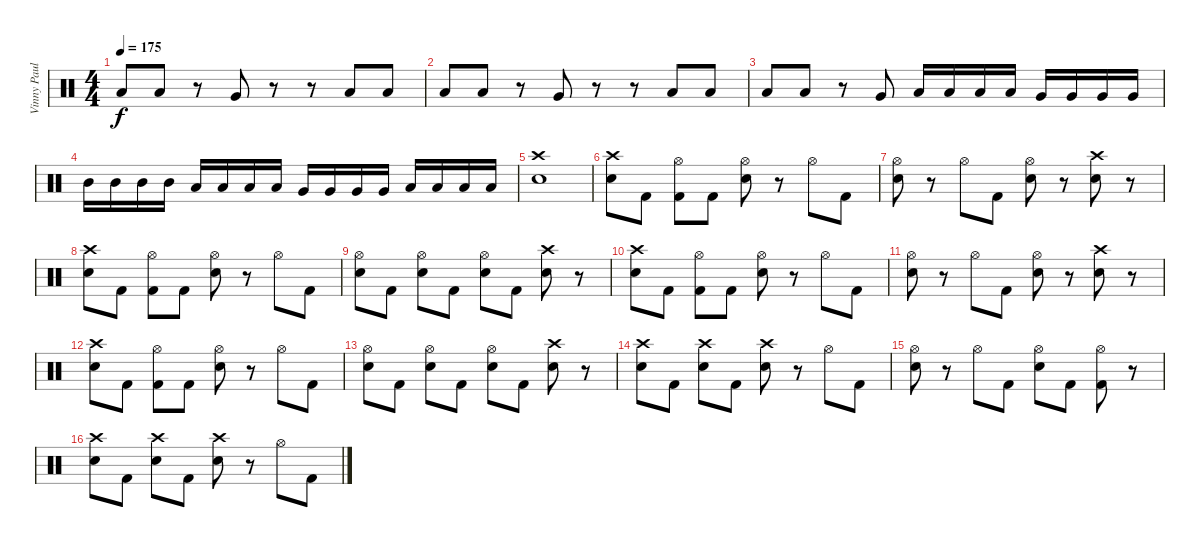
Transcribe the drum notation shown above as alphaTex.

\track ("Vinny Paul" "Vinny Paul") {instrument percussion}
\staff {score}
\articulation defaults
\ts (4 4)
\tempo 175
\clef neutral
\ks c "Low Tom (hit)".8{dy f} "Low Tom (hit)".8
r.8 "Very Low Tom (hit)".8 r.8 r.8 "Low Floor Tom (hit)".8 "Low Floor Tom (hit)".8 |
"Low Tom (hit)".8 "Low Tom (hit)".8 r.8 "Very Low Tom (hit)".8 r.8 r.8 "Low Floor Tom (hit)".8 "Low Floor Tom (hit)".8 |
"Low Tom (hit)".8 "Low Tom (hit)".8 r.8 "Very Low Tom (hit)".8 "Low Tom (hit)".16 "Low Tom (hit)".16 "Low Tom (hit)".16 "Low Tom (hit)".16 "Very Low Tom (hit)".16 "Very Low Tom (hit)".16 "Very Low Tom (hit)".16 "Very Low Tom (hit)".16 |
"Mid Tom (hit)".16 "Mid Tom (hit)".16 "Mid Tom (hit)".16 "Mid Tom (hit)".16 "Low Tom (hit)".16 "Low Tom (hit)".16 "Low Tom (hit)".16 "Low Tom (hit)".16 "Very Low Tom (hit)".16 "Very Low Tom (hit)".16 "Very Low Tom (hit)".16 "Very Low Tom (hit)".16 "Low Floor Tom (hit)".16 "Low Floor Tom (hit)".16 "Low Floor Tom (hit)".16 "Low Floor Tom (hit)".16 |
("Crash high (hit)" "Snare (hit) 2").1 |
("Crash high (hit)" "Snare (hit) 2").8 "Kick (hit) 2".8 ("Hi-Hat (open)" "Kick (hit) 2").8 "Kick (hit) 2".8 ("Hi-Hat (open)" "Snare (hit) 2").8 r.8 "Hi-Hat (open)".8 "Kick (hit) 2".8 |
("Hi-Hat (open)" "Snare (hit) 2").8 r.8 "Hi-Hat (open)".8 "Kick (hit) 2".8 ("Hi-Hat (open)" "Snare (hit) 2").8 r.8 ("Crash high (hit)" "Snare (hit) 2").8 r.8 |
("Crash high (hit)" "Snare (hit) 2").8 "Kick (hit) 2".8 ("Hi-Hat (open)" "Kick (hit) 2").8 "Kick (hit) 2".8 ("Hi-Hat (open)" "Snare (hit) 2").8 r.8 "Hi-Hat (open)".8 "Kick (hit) 2".8 |
("Hi-Hat (open)" "Snare (hit) 2").8 "Kick (hit) 2".8 ("Hi-Hat (open)" "Snare (hit)").8 "Kick (hit) 2".8 ("Hi-Hat (open)" "Snare (hit) 2").8 "Kick (hit) 2".8 ("Crash high (hit)" "Snare (hit) 2").8 r.8 |
("Crash high (hit)" "Snare (hit) 2").8 "Kick (hit) 2".8 ("Hi-Hat (open)" "Kick (hit) 2").8 "Kick (hit) 2".8 ("Hi-Hat (open)" "Snare (hit) 2").8 r.8 "Hi-Hat (open)".8 "Kick (hit) 2".8 |
("Hi-Hat (open)" "Snare (hit) 2").8 r.8 "Hi-Hat (open)".8 "Kick (hit) 2".8 ("Hi-Hat (open)" "Snare (hit) 2").8 r.8 ("Crash high (hit)" "Snare (hit) 2").8 r.8 |
("Crash high (hit)" "Snare (hit) 2").8 "Kick (hit) 2".8 ("Hi-Hat (open)" "Kick (hit) 2").8 "Kick (hit) 2".8 ("Hi-Hat (open)" "Snare (hit) 2").8 r.8 "Hi-Hat (open)".8 "Kick (hit) 2".8 |
("Hi-Hat (open)" "Snare (hit) 2").8 "Kick (hit) 2".8 ("Hi-Hat (open)" "Snare (hit)").8 "Kick (hit) 2".8 ("Hi-Hat (open)" "Snare (hit) 2").8 "Kick (hit) 2".8 ("Crash high (hit)" "Snare (hit) 2").8 r.8 |
("Crash high (hit)" "Snare (hit) 2").8 "Kick (hit) 2".8 ("Crash high (hit)" "Snare (hit) 2").8 "Kick (hit) 2".8 ("Crash high (hit)" "Snare (hit) 2").8 r.8 "Hi-Hat (open)".8 "Kick (hit) 2".8 |
("Hi-Hat (open)" "Snare (hit) 2").8 r.8 "Hi-Hat (open)".8 "Kick (hit) 2".8 ("Hi-Hat (open)" "Snare (hit) 2").8 "Kick (hit) 2".8 ("Hi-Hat (open)" "Kick (hit) 2").8 r.8 |
("Crash high (hit)" "Snare (hit) 2").8 "Kick (hit) 2".8 ("Crash high (hit)" "Snare (hit) 2").8 "Kick (hit) 2".8 ("Crash high (hit)" "Snare (hit) 2").8 r.8 "Hi-Hat (open)".8 "Kick (hit) 2".8
